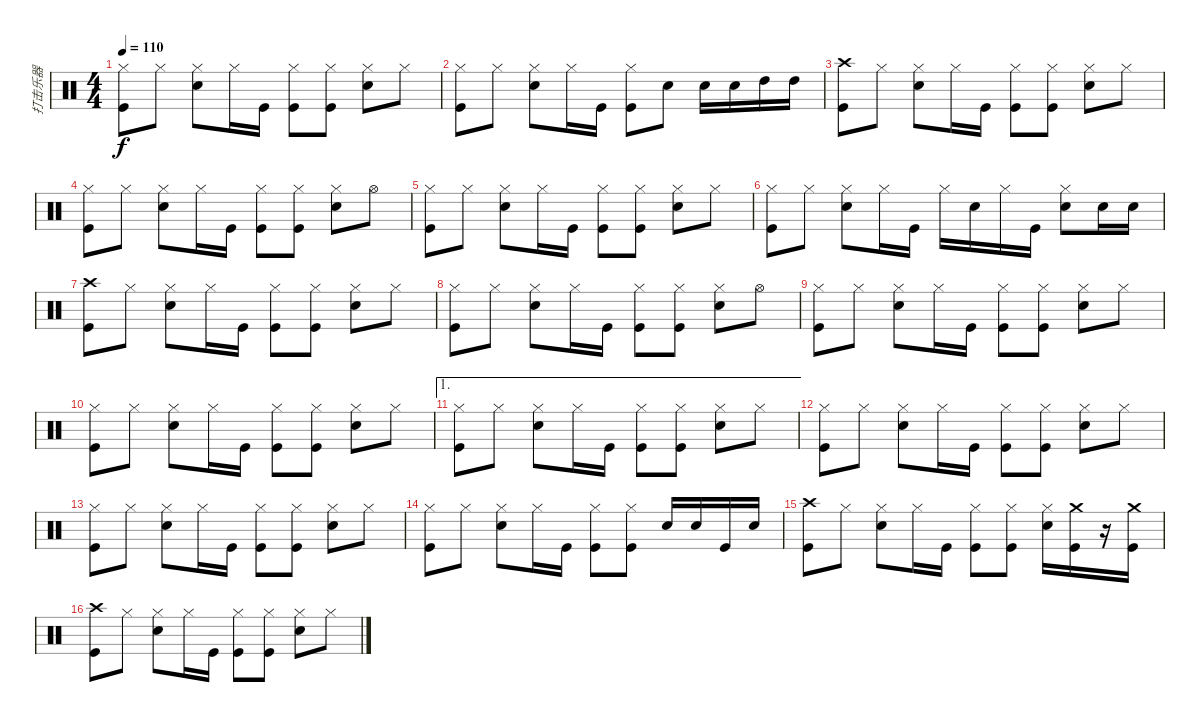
\track ("打击乐器" "打击乐器") {instrument percussion}
\staff {score}
\articulation defaults
\ts (4 4)
\tempo 110
\clef neutral
\ks c
("Hi-Hat (closed)" "Kick (hit)").8{dy f} "Hi-Hat (closed)".8 ("Hi-Hat (closed)" "Snare (hit) 2").8 "Hi-Hat (closed)".16 "Kick (hit)".16 ("Hi-Hat (closed)" "Kick (hit)").8 ("Hi-Hat (closed)" "Kick (hit)").8 ("Hi-Hat (closed)" "Snare (hit) 2").8 "Hi-Hat (closed)".8 |
("Hi-Hat (closed)" "Kick (hit)").8 "Hi-Hat (closed)".8 ("Hi-Hat (closed)" "Snare (hit) 2").8 "Hi-Hat (closed)".16 "Kick (hit)".16 ("Hi-Hat (closed)" "Kick (hit)").8 "Snare (hit) 2".8 "Snare (hit) 2".16 "Snare (hit) 2".16 "High Tom (hit)".16 "High Tom (hit)".16 |
("Crash high (hit)" "Kick (hit)").8 "Hi-Hat (closed)".8 ("Hi-Hat (closed)" "Snare (hit) 2").8 "Hi-Hat (closed)".16 "Kick (hit)".16 ("Hi-Hat (closed)" "Kick (hit)").8 ("Hi-Hat (closed)" "Kick (hit)").8 ("Hi-Hat (closed)" "Snare (hit) 2").8 "Hi-Hat (closed)".8 |
("Hi-Hat (closed)" "Kick (hit)").8 "Hi-Hat (closed)".8 ("Hi-Hat (closed)" "Snare (hit) 2").8 "Hi-Hat (closed)".16 "Kick (hit)".16 ("Hi-Hat (closed)" "Kick (hit)").8 ("Hi-Hat (closed)" "Kick (hit)").8 ("Hi-Hat (closed)" "Snare (hit) 2").8 "Hi-Hat (open)".8 |
("Hi-Hat (closed)" "Kick (hit)").8 "Hi-Hat (closed)".8 ("Hi-Hat (closed)" "Snare (hit) 2").8 "Hi-Hat (closed)".16 "Kick (hit)".16 ("Hi-Hat (closed)" "Kick (hit)").8 ("Hi-Hat (closed)" "Kick (hit)").8 ("Hi-Hat (closed)" "Snare (hit) 2").8 "Hi-Hat (closed)".8 |
("Hi-Hat (closed)" "Kick (hit)").8 "Hi-Hat (closed)".8 ("Hi-Hat (closed)" "Snare (hit) 2").8 "Hi-Hat (closed)".16 "Kick (hit)".16 "Hi-Hat (closed)".16 "Snare (hit) 2".16 "Hi-Hat (closed)".16 "Kick (hit)".16 ("Hi-Hat (closed)" "Snare (hit) 2").8 "Snare (hit) 2".16 "Snare (hit) 2".16 |
("Crash high (hit)" "Kick (hit)").8 "Hi-Hat (closed)".8 ("Hi-Hat (closed)" "Snare (hit) 2").8 "Hi-Hat (closed)".16 "Kick (hit)".16 ("Hi-Hat (closed)" "Kick (hit)").8 ("Hi-Hat (closed)" "Kick (hit)").8 ("Hi-Hat (closed)" "Snare (hit) 2").8 "Hi-Hat (closed)".8 |
("Hi-Hat (closed)" "Kick (hit)").8 "Hi-Hat (closed)".8 ("Hi-Hat (closed)" "Snare (hit) 2").8 "Hi-Hat (closed)".16 "Kick (hit)".16 ("Hi-Hat (closed)" "Kick (hit)").8 ("Hi-Hat (closed)" "Kick (hit)").8 ("Hi-Hat (closed)" "Snare (hit) 2").8 "Hi-Hat (open)".8 |
("Hi-Hat (closed)" "Kick (hit)").8 "Hi-Hat (closed)".8 ("Hi-Hat (closed)" "Snare (hit) 2").8 "Hi-Hat (closed)".16 "Kick (hit)".16 ("Hi-Hat (closed)" "Kick (hit)").8 ("Hi-Hat (closed)" "Kick (hit)").8 ("Hi-Hat (closed)" "Snare (hit) 2").8 "Hi-Hat (closed)".8 |
("Hi-Hat (closed)" "Kick (hit)").8 "Hi-Hat (closed)".8 ("Hi-Hat (closed)" "Snare (hit) 2").8 "Hi-Hat (closed)".16 "Kick (hit)".16 ("Hi-Hat (closed)" "Kick (hit)").8 ("Hi-Hat (closed)" "Kick (hit)").8 ("Hi-Hat (closed)" "Snare (hit) 2").8 "Hi-Hat (closed)".8 |
\ae 1
("Hi-Hat (closed)" "Kick (hit)").8 "Hi-Hat (closed)".8 ("Hi-Hat (closed)" "Snare (hit) 2").8 "Hi-Hat (closed)".16 "Kick (hit)".16 ("Hi-Hat (closed)" "Kick (hit)").8 ("Hi-Hat (closed)" "Kick (hit)").8 ("Hi-Hat (closed)" "Snare (hit) 2").8 "Hi-Hat (closed)".8 |
("Hi-Hat (closed)" "Kick (hit)").8 "Hi-Hat (closed)".8 ("Hi-Hat (closed)" "Snare (hit) 2").8 "Hi-Hat (closed)".16 "Kick (hit)".16 ("Hi-Hat (closed)" "Kick (hit)").8 ("Hi-Hat (closed)" "Kick (hit)").8 ("Hi-Hat (closed)" "Snare (hit) 2").8 "Hi-Hat (closed)".8 |
("Hi-Hat (closed)" "Kick (hit)").8 "Hi-Hat (closed)".8 ("Hi-Hat (closed)" "Snare (hit) 2").8 "Hi-Hat (closed)".16 "Kick (hit)".16 ("Hi-Hat (closed)" "Kick (hit)").8 ("Hi-Hat (closed)" "Kick (hit)").8 ("Hi-Hat (closed)" "Snare (hit) 2").8 "Hi-Hat (closed)".8 |
("Hi-Hat (closed)" "Kick (hit)").8 "Hi-Hat (closed)".8 ("Hi-Hat (closed)" "Snare (hit) 2").8 "Hi-Hat (closed)".16 "Kick (hit)".16 ("Hi-Hat (closed)" "Kick (hit)").8 ("Hi-Hat (closed)" "Kick (hit)").8 "Snare (hit) 2".16 "Snare (hit) 2".16 "Kick (hit)".16 "Snare (hit) 2".16 |
("Crash high (hit)" "Kick (hit)").8 "Hi-Hat (closed)".8 ("Hi-Hat (closed)" "Snare (hit) 2").8 "Hi-Hat (closed)".16 "Kick (hit)".16 ("Hi-Hat (closed)" "Kick (hit)").8 ("Hi-Hat (closed)" "Kick (hit)").8 ("Hi-Hat (closed)" "Snare (hit) 2").16 ("Crash medium (hit)" "Kick (hit)").16 r.16 ("Crash medium (hit)" "Kick (hit)").16 |
("Crash high (hit)" "Kick (hit)").8 "Hi-Hat (closed)".8 ("Hi-Hat (closed)" "Snare (hit) 2").8 "Hi-Hat (closed)".16 "Kick (hit)".16 ("Hi-Hat (closed)" "Kick (hit)").8 ("Hi-Hat (closed)" "Kick (hit)").8 ("Hi-Hat (closed)" "Snare (hit) 2").8 "Hi-Hat (closed)".8
